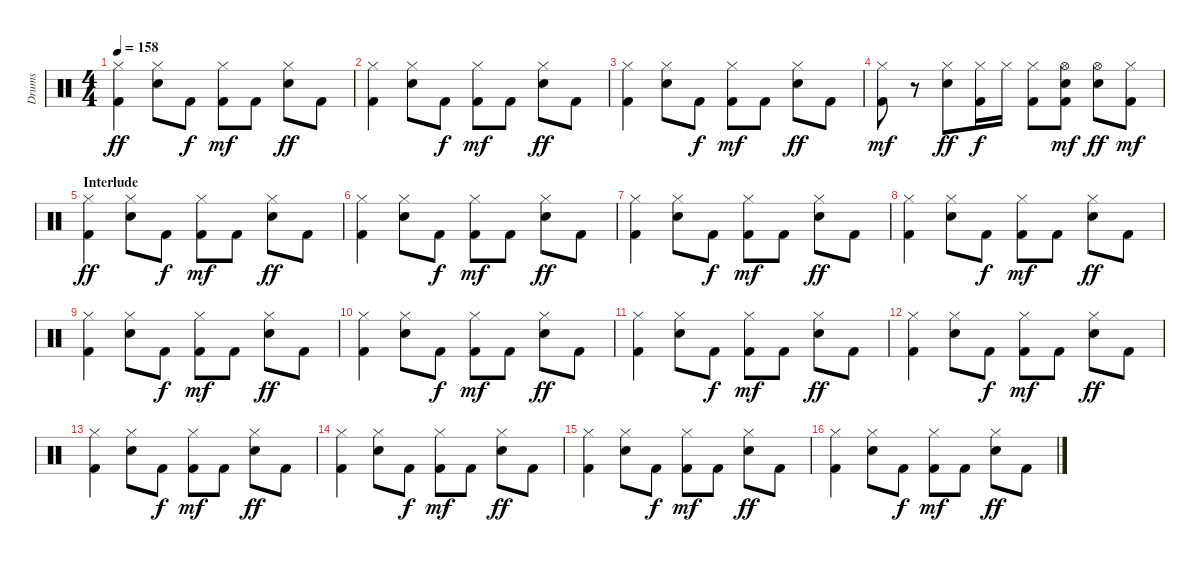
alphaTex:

\track ("Drums" "Drums") {instrument percussion}
\staff {score}
\articulation defaults
\ts (4 4)
\tempo 158
\clef neutral
\ks c
("Hi-Hat (closed)" "Kick (hit) 2").4{dy ff} ("Hi-Hat (closed)" "Snare (hit) 2").8 "Kick (hit) 2".8{dy f} ("Hi-Hat (closed)" "Kick (hit) 2").8{dy mf} "Kick (hit) 2".8 ("Hi-Hat (closed)" "Snare (hit) 2").8{dy ff} "Kick (hit) 2".8 |
("Hi-Hat (closed)" "Kick (hit) 2").4 ("Hi-Hat (closed)" "Snare (hit) 2").8 "Kick (hit) 2".8{dy f} ("Hi-Hat (closed)" "Kick (hit) 2").8{dy mf} "Kick (hit) 2".8 ("Hi-Hat (closed)" "Snare (hit) 2").8{dy ff} "Kick (hit) 2".8 |
("Hi-Hat (closed)" "Kick (hit) 2").4 ("Hi-Hat (closed)" "Snare (hit) 2").8 "Kick (hit) 2".8{dy f} ("Hi-Hat (closed)" "Kick (hit) 2").8{dy mf} "Kick (hit) 2".8 ("Hi-Hat (closed)" "Snare (hit) 2").8{dy ff} "Kick (hit) 2".8 |
("Hi-Hat (closed)" "Kick (hit) 2").8{dy mf} r.8 ("Hi-Hat (closed)" "Snare (hit) 2").8{dy ff} ("Hi-Hat (closed)" "Kick (hit) 2").16{dy f} "Hi-Hat (closed)".16 ("Hi-Hat (closed)" "Kick (hit) 2").8 ("Hi-Hat (open)" "Snare (hit) 2" "Kick (hit) 2").8{dy mf} ("Hi-Hat (open)" "Snare (hit) 2").8{dy ff} ("Hi-Hat (closed)" "Kick (hit) 2").8{dy mf} |
\section ("" "Interlude")
("Hi-Hat (closed)" "Kick (hit) 2").4{dy ff} ("Hi-Hat (closed)" "Snare (hit) 2").8 "Kick (hit) 2".8{dy f} ("Hi-Hat (closed)" "Kick (hit) 2").8{dy mf} "Kick (hit) 2".8 ("Hi-Hat (closed)" "Snare (hit) 2").8{dy ff} "Kick (hit) 2".8 |
("Hi-Hat (closed)" "Kick (hit) 2").4 ("Hi-Hat (closed)" "Snare (hit) 2").8 "Kick (hit) 2".8{dy f} ("Hi-Hat (closed)" "Kick (hit) 2").8{dy mf} "Kick (hit) 2".8 ("Hi-Hat (closed)" "Snare (hit) 2").8{dy ff} "Kick (hit) 2".8 |
("Hi-Hat (closed)" "Kick (hit) 2").4 ("Hi-Hat (closed)" "Snare (hit) 2").8 "Kick (hit) 2".8{dy f} ("Hi-Hat (closed)" "Kick (hit) 2").8{dy mf} "Kick (hit) 2".8 ("Hi-Hat (closed)" "Snare (hit) 2").8{dy ff} "Kick (hit) 2".8 |
("Hi-Hat (closed)" "Kick (hit) 2").4 ("Hi-Hat (closed)" "Snare (hit) 2").8 "Kick (hit) 2".8{dy f} ("Hi-Hat (closed)" "Kick (hit) 2").8{dy mf} "Kick (hit) 2".8 ("Hi-Hat (closed)" "Snare (hit) 2").8{dy ff} "Kick (hit) 2".8 |
("Hi-Hat (closed)" "Kick (hit) 2").4 ("Hi-Hat (closed)" "Snare (hit) 2").8 "Kick (hit) 2".8{dy f} ("Hi-Hat (closed)" "Kick (hit) 2").8{dy mf} "Kick (hit) 2".8 ("Hi-Hat (closed)" "Snare (hit) 2").8{dy ff} "Kick (hit) 2".8 |
("Hi-Hat (closed)" "Kick (hit) 2").4 ("Hi-Hat (closed)" "Snare (hit) 2").8 "Kick (hit) 2".8{dy f} ("Hi-Hat (closed)" "Kick (hit) 2").8{dy mf} "Kick (hit) 2".8 ("Hi-Hat (closed)" "Snare (hit) 2").8{dy ff} "Kick (hit) 2".8 |
("Hi-Hat (closed)" "Kick (hit) 2").4 ("Hi-Hat (closed)" "Snare (hit) 2").8 "Kick (hit) 2".8{dy f} ("Hi-Hat (closed)" "Kick (hit) 2").8{dy mf} "Kick (hit) 2".8 ("Hi-Hat (closed)" "Snare (hit) 2").8{dy ff} "Kick (hit) 2".8 |
("Hi-Hat (closed)" "Kick (hit) 2").4 ("Hi-Hat (closed)" "Snare (hit) 2").8 "Kick (hit) 2".8{dy f} ("Hi-Hat (closed)" "Kick (hit) 2").8{dy mf} "Kick (hit) 2".8 ("Hi-Hat (closed)" "Snare (hit) 2").8{dy ff} "Kick (hit) 2".8 |
("Hi-Hat (closed)" "Kick (hit) 2").4 ("Hi-Hat (closed)" "Snare (hit) 2").8 "Kick (hit) 2".8{dy f} ("Hi-Hat (closed)" "Kick (hit) 2").8{dy mf} "Kick (hit) 2".8 ("Hi-Hat (closed)" "Snare (hit) 2").8{dy ff} "Kick (hit) 2".8 |
("Hi-Hat (closed)" "Kick (hit) 2").4 ("Hi-Hat (closed)" "Snare (hit) 2").8 "Kick (hit) 2".8{dy f} ("Hi-Hat (closed)" "Kick (hit) 2").8{dy mf} "Kick (hit) 2".8 ("Hi-Hat (closed)" "Snare (hit) 2").8{dy ff} "Kick (hit) 2".8 |
("Hi-Hat (closed)" "Kick (hit) 2").4 ("Hi-Hat (closed)" "Snare (hit) 2").8 "Kick (hit) 2".8{dy f} ("Hi-Hat (closed)" "Kick (hit) 2").8{dy mf} "Kick (hit) 2".8 ("Hi-Hat (closed)" "Snare (hit) 2").8{dy ff} "Kick (hit) 2".8 |
("Hi-Hat (closed)" "Kick (hit) 2").4 ("Hi-Hat (closed)" "Snare (hit) 2").8 "Kick (hit) 2".8{dy f} ("Hi-Hat (closed)" "Kick (hit) 2").8{dy mf} "Kick (hit) 2".8 ("Hi-Hat (closed)" "Snare (hit) 2").8{dy ff} "Kick (hit) 2".8
